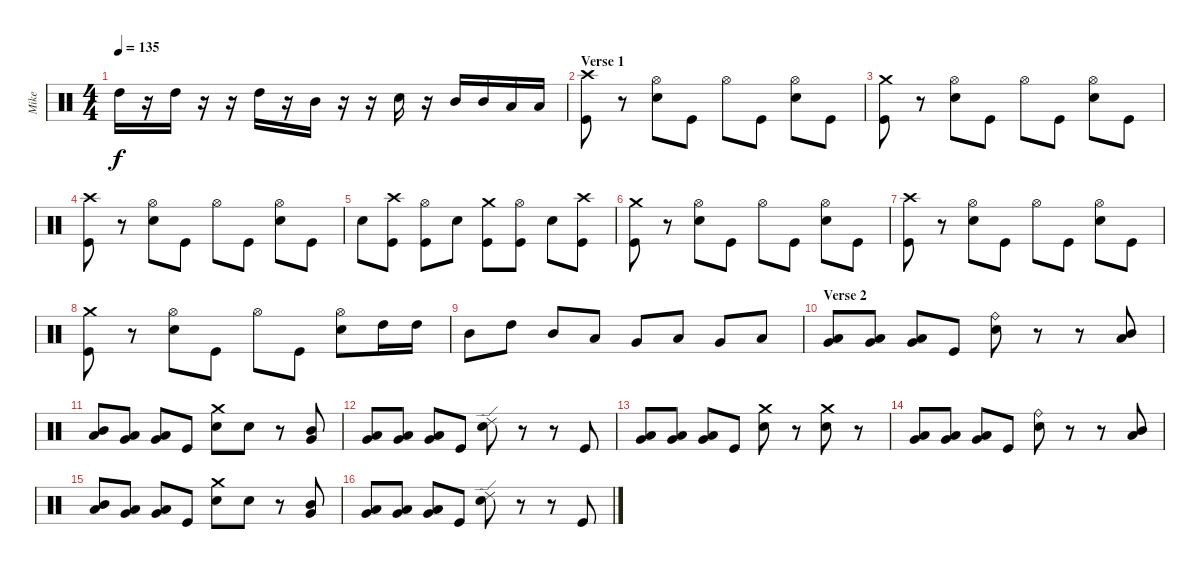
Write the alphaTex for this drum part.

\track ("Mike" "Mike") {instrument percussion}
\staff {score}
\articulation defaults
\ts (4 4)
\tempo 135
\clef neutral
\ks c "High Tom (hit)".16{dy f}
r.16 "High Tom (hit)".16 r.16 r.16 "High Tom (hit)".16 r.16 "Mid Tom (hit)".16 r.16 r.16 "Electric Snare (hit)".16 r.16 "Mid Tom (hit)".16 "Mid Tom (hit)".16 "Low Tom (hit)".16 "Low Tom (hit)".16 |
\section ("" "Verse 1")
("Crash high (hit)" "Kick (hit)").8 r.8 ("Electric Snare (hit)" "Hi-Hat (open)").8 "Kick (hit)".8 "Hi-Hat (open)".8 "Kick (hit)".8 ("Electric Snare (hit)" "Hi-Hat (open)").8 "Kick (hit)".8 |
("Crash medium (hit)" "Kick (hit)").8 r.8 ("Electric Snare (hit)" "Hi-Hat (open)").8 "Kick (hit)".8 "Hi-Hat (open)".8 "Kick (hit)".8 ("Electric Snare (hit)" "Hi-Hat (open)").8 "Kick (hit)".8 |
("Crash high (hit)" "Kick (hit)").8 r.8 ("Electric Snare (hit)" "Hi-Hat (open)").8 "Kick (hit)".8 "Hi-Hat (open)".8 "Kick (hit)".8 ("Electric Snare (hit)" "Hi-Hat (open)").8 "Kick (hit)".8 |
"Electric Snare (hit)".8 ("Crash high (hit)" "Kick (hit)").8 ("Hi-Hat (open)" "Kick (hit)").8 "Electric Snare (hit)".8 ("Crash medium (hit)" "Kick (hit)").8 ("Hi-Hat (open)" "Kick (hit)").8 "Electric Snare (hit)".8 ("Crash high (hit)" "Kick (hit)").8 |
("Crash medium (hit)" "Kick (hit)").8 r.8 ("Electric Snare (hit)" "Hi-Hat (open)").8 "Kick (hit)".8 "Hi-Hat (open)".8 "Kick (hit)".8 ("Electric Snare (hit)" "Hi-Hat (open)").8 "Kick (hit)".8 |
("Crash high (hit)" "Kick (hit)").8 r.8 ("Electric Snare (hit)" "Hi-Hat (open)").8 "Kick (hit)".8 "Hi-Hat (open)".8 "Kick (hit)".8 ("Electric Snare (hit)" "Hi-Hat (open)").8 "Kick (hit)".8 |
("Crash medium (hit)" "Kick (hit)").8 r.8 ("Electric Snare (hit)" "Hi-Hat (open)").8 "Kick (hit)".8 "Hi-Hat (open)".8 "Kick (hit)".8 ("Electric Snare (hit)" "Hi-Hat (open)").8 "High Tom (hit)".16 "High Tom (hit)".16 |
"Mid Tom (hit)".8 "High Tom (hit)".8 "Mid Tom (hit)".8 "Low Tom (hit)".8 "Very Low Tom (hit)".8 "Low Tom (hit)".8 "Very Low Tom (hit)".8 "Low Floor Tom (hit)".8 |
\section ("" "Verse 2")
("Low Tom (hit)" "Very Low Tom (hit)").8 ("Low Tom (hit)" "Very Low Tom (hit)").8 ("Low Tom (hit)" "Very Low Tom (hit)").8 "Kick (hit)".8 ("Ride (bell)" "Electric Snare (hit)").8 r.8 r.8 ("Low Tom (hit)" "Mid Tom (hit)").8 |
("Mid Tom (hit)" "Low Tom (hit)").8 ("Low Tom (hit)" "Very Low Tom (hit)").8 ("Low Tom (hit)" "Very Low Tom (hit)").8 "Kick (hit)".8 ("Crash medium (hit)" "Electric Snare (hit)").8 "Electric Snare (hit)".8 r.8 ("Mid Tom (hit)" "Very Low Tom (hit)").8 |
("Very Low Tom (hit)" "Low Tom (hit)").8 ("Very Low Tom (hit)" "Low Tom (hit)").8 ("Very Low Tom (hit)" "Low Tom (hit)").8 "Kick (hit)".8 ("Ride (edge) 2" "Electric Snare (hit)").8 r.8 r.8 "Kick (hit)".8 |
("Very Low Tom (hit)" "Low Tom (hit)").8 ("Very Low Tom (hit)" "Low Tom (hit)").8 ("Very Low Tom (hit)" "Low Tom (hit)").8 "Kick (hit)".8 ("Crash medium (hit)" "Electric Snare (hit)").8 r.8 ("Crash medium (hit)" "Electric Snare (hit)").8 r.8 |
("Low Tom (hit)" "Very Low Tom (hit)").8 ("Low Tom (hit)" "Very Low Tom (hit)").8 ("Low Tom (hit)" "Very Low Tom (hit)").8 "Kick (hit)".8 ("Ride (bell)" "Electric Snare (hit)").8 r.8 r.8 ("Low Tom (hit)" "Mid Tom (hit)").8 |
("Mid Tom (hit)" "Low Tom (hit)").8 ("Low Tom (hit)" "Very Low Tom (hit)").8 ("Low Tom (hit)" "Very Low Tom (hit)").8 "Kick (hit)".8 ("Crash medium (hit)" "Electric Snare (hit)").8 "Electric Snare (hit)".8 r.8 ("Mid Tom (hit)" "Very Low Tom (hit)").8 |
("Very Low Tom (hit)" "Low Tom (hit)").8 ("Very Low Tom (hit)" "Low Tom (hit)").8 ("Very Low Tom (hit)" "Low Tom (hit)").8 "Kick (hit)".8 ("Ride (edge) 2" "Electric Snare (hit)").8 r.8 r.8 "Kick (hit)".8
